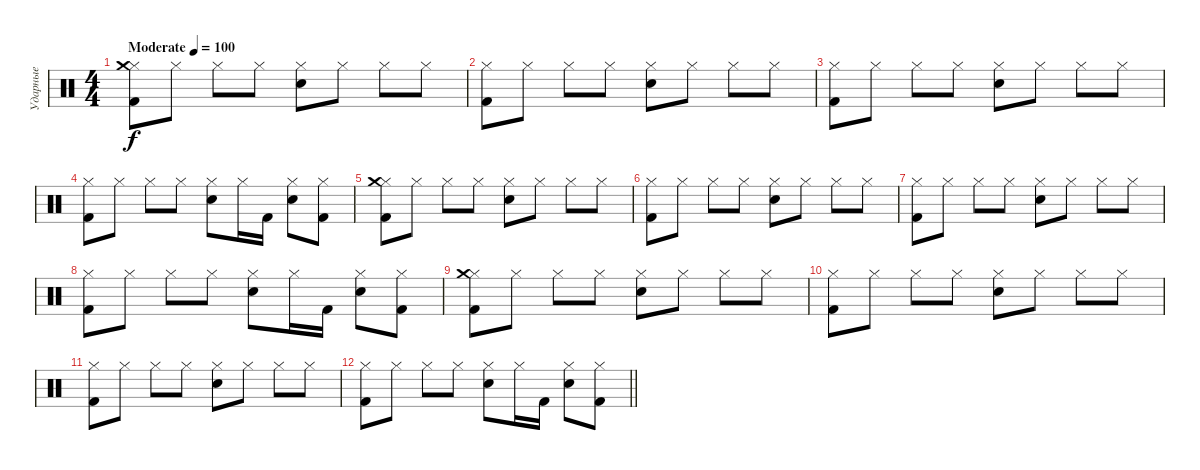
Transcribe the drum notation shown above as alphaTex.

\track ("Ударные" "Ударные") {instrument percussion}
\staff {score}
\articulation defaults
\ts (4 4)
\tempo (100 "Moderate")
\clef neutral
\ks c
("Hi-Hat (closed)" "Kick (hit) 2" "Crash medium (hit)").8{dy f} "Hi-Hat (closed)".8 "Hi-Hat (closed)".8 "Hi-Hat (closed)".8 ("Hi-Hat (closed)" "Snare (hit) 2").8 "Hi-Hat (closed)".8 "Hi-Hat (closed)".8 "Hi-Hat (closed)".8 |
("Hi-Hat (closed)" "Kick (hit) 2").8 "Hi-Hat (closed)".8 "Hi-Hat (closed)".8 "Hi-Hat (closed)".8 ("Hi-Hat (closed)" "Snare (hit) 2").8 "Hi-Hat (closed)".8 "Hi-Hat (closed)".8 "Hi-Hat (closed)".8 |
("Hi-Hat (closed)" "Kick (hit) 2").8 "Hi-Hat (closed)".8 "Hi-Hat (closed)".8 "Hi-Hat (closed)".8 ("Hi-Hat (closed)" "Snare (hit) 2").8 "Hi-Hat (closed)".8 "Hi-Hat (closed)".8 "Hi-Hat (closed)".8 |
("Hi-Hat (closed)" "Kick (hit) 2").8 "Hi-Hat (closed)".8 "Hi-Hat (closed)".8 "Hi-Hat (closed)".8 ("Hi-Hat (closed)" "Snare (hit) 2").8 "Hi-Hat (closed)".16 "Kick (hit) 2".16 ("Hi-Hat (closed)" "Snare (hit) 2").8 ("Hi-Hat (closed)" "Kick (hit) 2").8 |
("Hi-Hat (closed)" "Kick (hit) 2" "Crash medium (hit)").8 "Hi-Hat (closed)".8 "Hi-Hat (closed)".8 "Hi-Hat (closed)".8 ("Hi-Hat (closed)" "Snare (hit) 2").8 "Hi-Hat (closed)".8 "Hi-Hat (closed)".8 "Hi-Hat (closed)".8 |
("Hi-Hat (closed)" "Kick (hit) 2").8 "Hi-Hat (closed)".8 "Hi-Hat (closed)".8 "Hi-Hat (closed)".8 ("Hi-Hat (closed)" "Snare (hit) 2").8 "Hi-Hat (closed)".8 "Hi-Hat (closed)".8 "Hi-Hat (closed)".8 |
("Hi-Hat (closed)" "Kick (hit) 2").8 "Hi-Hat (closed)".8 "Hi-Hat (closed)".8 "Hi-Hat (closed)".8 ("Hi-Hat (closed)" "Snare (hit) 2").8 "Hi-Hat (closed)".8 "Hi-Hat (closed)".8 "Hi-Hat (closed)".8 |
("Hi-Hat (closed)" "Kick (hit) 2").8 "Hi-Hat (closed)".8 "Hi-Hat (closed)".8 "Hi-Hat (closed)".8 ("Hi-Hat (closed)" "Snare (hit) 2").8 "Hi-Hat (closed)".16 "Kick (hit) 2".16 ("Hi-Hat (closed)" "Snare (hit) 2").8 ("Hi-Hat (closed)" "Kick (hit) 2").8 |
("Hi-Hat (closed)" "Kick (hit) 2" "Crash medium (hit)").8 "Hi-Hat (closed)".8 "Hi-Hat (closed)".8 "Hi-Hat (closed)".8 ("Hi-Hat (closed)" "Snare (hit) 2").8 "Hi-Hat (closed)".8 "Hi-Hat (closed)".8 "Hi-Hat (closed)".8 |
("Hi-Hat (closed)" "Kick (hit) 2").8 "Hi-Hat (closed)".8 "Hi-Hat (closed)".8 "Hi-Hat (closed)".8 ("Hi-Hat (closed)" "Snare (hit) 2").8 "Hi-Hat (closed)".8 "Hi-Hat (closed)".8 "Hi-Hat (closed)".8 |
("Hi-Hat (closed)" "Kick (hit) 2").8 "Hi-Hat (closed)".8 "Hi-Hat (closed)".8 "Hi-Hat (closed)".8 ("Hi-Hat (closed)" "Snare (hit) 2").8 "Hi-Hat (closed)".8 "Hi-Hat (closed)".8 "Hi-Hat (closed)".8 |
\barLineRight lightlight
("Hi-Hat (closed)" "Kick (hit) 2").8 "Hi-Hat (closed)".8 "Hi-Hat (closed)".8 "Hi-Hat (closed)".8 ("Hi-Hat (closed)" "Snare (hit) 2").8 "Hi-Hat (closed)".16 "Kick (hit) 2".16 ("Hi-Hat (closed)" "Snare (hit) 2").8 ("Hi-Hat (closed)" "Kick (hit) 2").8
